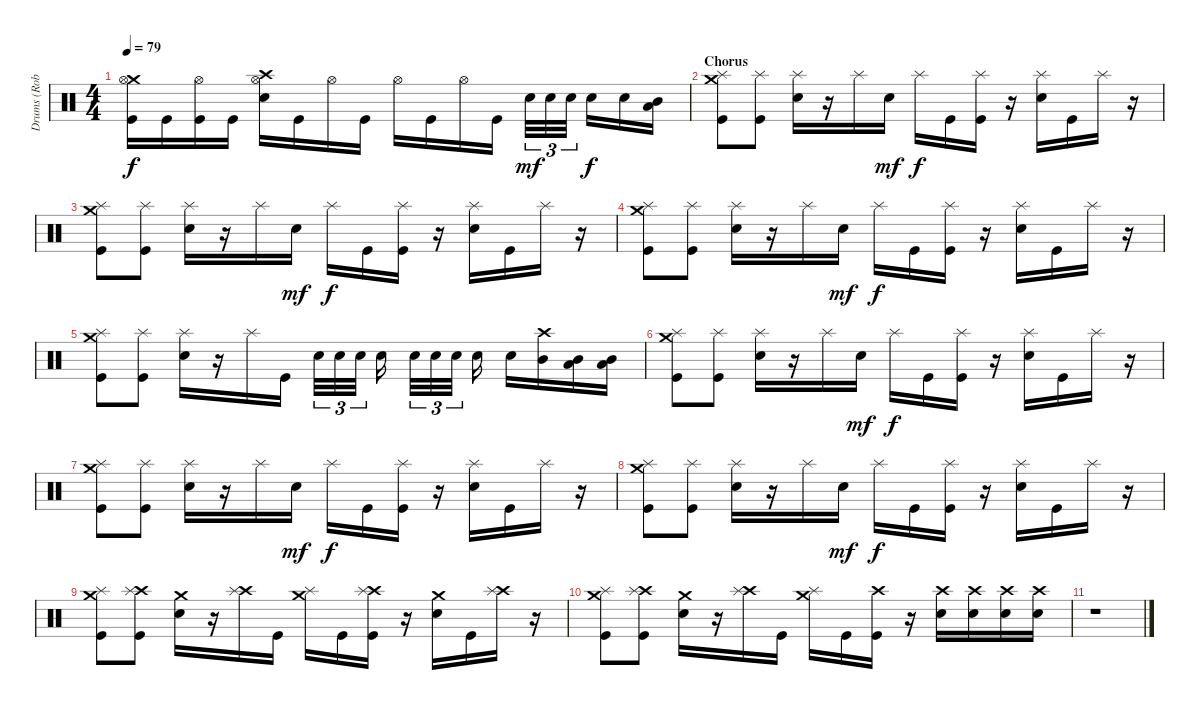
\track ("Drums (Rob Bourdon)" "Drums (Rob") {instrument percussion}
\staff {score}
\articulation defaults
\ts (4 4)
\tempo 79
\clef neutral
\ks c
("Crash medium (hit)" "Hi-Hat (open)" "Kick (hit)").16{dy f} "Kick (hit)".16 ("Hi-Hat (open)" "Kick (hit)").16 "Kick (hit)".16 ("Crash high (hit)" "Hi-Hat (open)" "Electric Snare (hit)").16 "Kick (hit)".16 "Hi-Hat (open)".16 "Kick (hit)".16 "Hi-Hat (open)".16 "Kick (hit)".16 "Hi-Hat (open)".16 "Kick (hit)".16 "Electric Snare (hit)".32{tu (3 2) dy mf} "Electric Snare (hit)".32{tu (3 2)} "Electric Snare (hit)".32{tu (3 2)} "Electric Snare (hit)".16{dy f} "Electric Snare (hit)".16 ("Mid Tom (hit)" "Low Tom (hit)").16 |
\section ("" "Chorus")
("Crash medium (hit)" "Splash (hit)" "Kick (hit)").8 ("Splash (hit)" "Kick (hit)").8 ("Splash (hit)" "Electric Snare (hit)").16 r.16 "Splash (hit)".16 "Electric Snare (hit)".16{dy mf} "Splash (hit)".16{dy f} "Kick (hit)".16 ("Splash (hit)" "Kick (hit)").16 r.16 ("Splash (hit)" "Electric Snare (hit)").16 "Kick (hit)".16 "Splash (hit)".16 r.16 |
("Crash medium (hit)" "Splash (hit)" "Kick (hit)").8 ("Splash (hit)" "Kick (hit)").8 ("Splash (hit)" "Electric Snare (hit)").16 r.16 "Splash (hit)".16 "Electric Snare (hit)".16{dy mf} "Splash (hit)".16{dy f} "Kick (hit)".16 ("Splash (hit)" "Kick (hit)").16 r.16 ("Splash (hit)" "Electric Snare (hit)").16 "Kick (hit)".16 "Splash (hit)".16 r.16 |
("Crash medium (hit)" "Splash (hit)" "Kick (hit)").8 ("Splash (hit)" "Kick (hit)").8 ("Splash (hit)" "Electric Snare (hit)").16 r.16 "Splash (hit)".16 "Electric Snare (hit)".16{dy mf} "Splash (hit)".16{dy f} "Kick (hit)".16 ("Splash (hit)" "Kick (hit)").16 r.16 ("Splash (hit)" "Electric Snare (hit)").16 "Kick (hit)".16 "Splash (hit)".16 r.16 |
("Crash medium (hit)" "Splash (hit)" "Kick (hit)").8 ("Splash (hit)" "Kick (hit)").8 ("Splash (hit)" "Electric Snare (hit)").16 r.16 "Splash (hit)".16 "Kick (hit)".16 "Electric Snare (hit)".32{tu (3 2)} "Electric Snare (hit)".32{tu (3 2)} "Electric Snare (hit)".32{tu (3 2)} "Electric Snare (hit)".16 "Electric Snare (hit)".32{tu (3 2)} "Electric Snare (hit)".32{tu (3 2)} "Electric Snare (hit)".32{tu (3 2)} "Electric Snare (hit)".16 "Electric Snare (hit)".16 ("Crash high (hit)" "Mid Tom (hit)").16 ("Mid Tom (hit)" "Low Tom (hit)").16 ("Mid Tom (hit)" "Low Tom (hit)").16 |
("Crash medium (hit)" "Splash (hit)" "Kick (hit)").8 ("Splash (hit)" "Kick (hit)").8 ("Splash (hit)" "Electric Snare (hit)").16 r.16 "Splash (hit)".16 "Electric Snare (hit)".16{dy mf} "Splash (hit)".16{dy f} "Kick (hit)".16 ("Splash (hit)" "Kick (hit)").16 r.16 ("Splash (hit)" "Electric Snare (hit)").16 "Kick (hit)".16 "Splash (hit)".16 r.16 |
("Crash medium (hit)" "Splash (hit)" "Kick (hit)").8 ("Splash (hit)" "Kick (hit)").8 ("Splash (hit)" "Electric Snare (hit)").16 r.16 "Splash (hit)".16 "Electric Snare (hit)".16{dy mf} "Splash (hit)".16{dy f} "Kick (hit)".16 ("Splash (hit)" "Kick (hit)").16 r.16 ("Splash (hit)" "Electric Snare (hit)").16 "Kick (hit)".16 "Splash (hit)".16 r.16 |
("Crash medium (hit)" "Splash (hit)" "Kick (hit)").8 ("Splash (hit)" "Kick (hit)").8 ("Splash (hit)" "Electric Snare (hit)").16 r.16 "Splash (hit)".16 "Electric Snare (hit)".16{dy mf} "Splash (hit)".16{dy f} "Kick (hit)".16 ("Splash (hit)" "Kick (hit)").16 r.16 ("Splash (hit)" "Electric Snare (hit)").16 "Kick (hit)".16 "Splash (hit)".16 r.16 |
("Crash medium (hit)" "Splash (hit)" "Kick (hit)").8 ("Crash high (hit)" "Splash (hit)" "Kick (hit)").8 ("Crash medium (hit)" "Electric Snare (hit)").16 r.16 ("Crash high (hit)" "Splash (hit)").16 "Kick (hit)".16 ("Crash medium (hit)" "Splash (hit)").16 "Kick (hit)".16 ("Crash high (hit)" "Splash (hit)" "Kick (hit)").16 r.16 ("Crash medium (hit)" "Electric Snare (hit)").16 "Kick (hit)".16 ("Crash high (hit)" "Splash (hit)").16 r.16 |
("Crash medium (hit)" "Splash (hit)" "Kick (hit)").8 ("Crash high (hit)" "Splash (hit)" "Kick (hit)").8 ("Crash medium (hit)" "Electric Snare (hit)").16 r.16 ("Crash high (hit)" "Splash (hit)").16 "Kick (hit)".16 ("Crash medium (hit)" "Splash (hit)").16 "Kick (hit)".16 ("Crash high (hit)" "Kick (hit)").16 r.16 ("Crash high (hit)" "Electric Snare (hit)").16 ("Crash high (hit)" "Electric Snare (hit)").16 ("Crash high (hit)" "Electric Snare (hit)").16 ("Crash high (hit)" "Electric Snare (hit)").16 |
r.1
